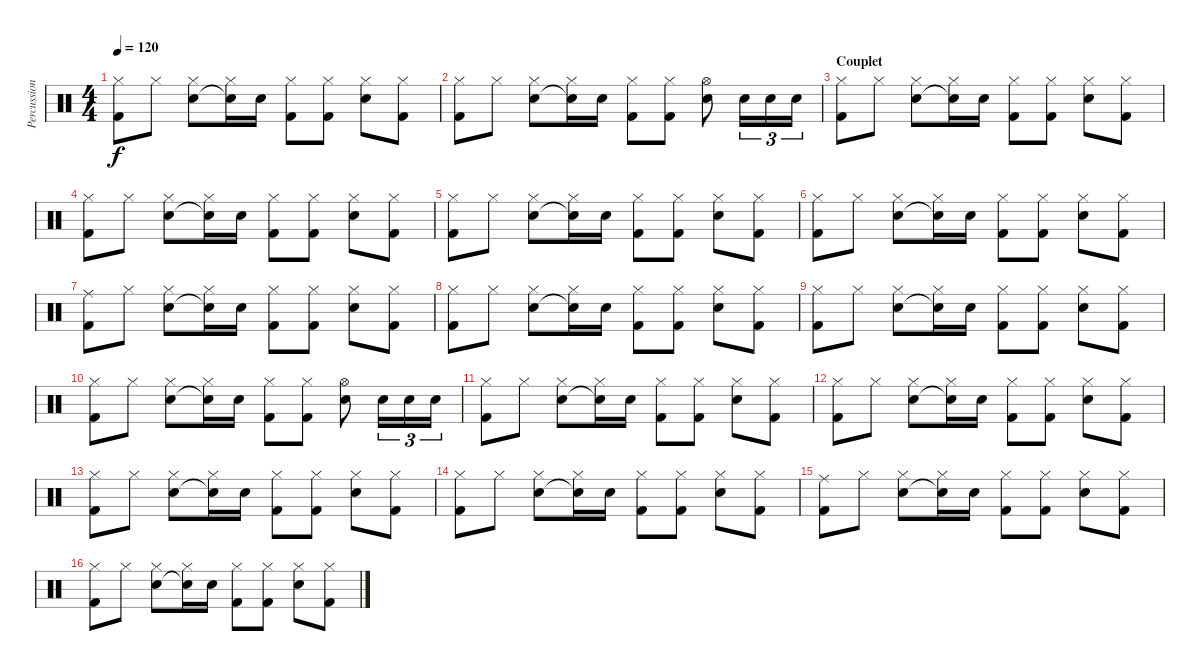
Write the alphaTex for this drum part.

\track ("Percussions" "Percussion") {instrument percussion}
\staff {score}
\articulation defaults
\ts (4 4)
\tempo 120
\clef neutral
\ks c
("Hi-Hat (closed)" "Kick (hit) 2").8{dy f} "Hi-Hat (closed)".8 ("Hi-Hat (closed)" "Snare (hit) 2").8 ("Hi-Hat (closed)" "Snare (hit)"{t}).16 "Snare (hit) 2".16 ("Hi-Hat (closed)" "Kick (hit) 2").8 ("Hi-Hat (closed)" "Kick (hit) 2").8 ("Hi-Hat (closed)" "Snare (hit) 2").8 ("Hi-Hat (closed)" "Kick (hit) 2").8 |
("Hi-Hat (closed)" "Kick (hit) 2").8 "Hi-Hat (closed)".8 ("Hi-Hat (closed)" "Snare (hit) 2").8 ("Hi-Hat (closed)" "Snare (hit)"{t}).16 "Snare (hit) 2".16 ("Hi-Hat (closed)" "Kick (hit) 2").8 ("Hi-Hat (closed)" "Kick (hit) 2").8 ("Hi-Hat (open)" "Snare (hit) 2").8 "Snare (hit) 2".16{tu (3 2)} "Snare (hit) 2".16{tu (3 2)} "Snare (hit) 2".16{tu (3 2)} |
\section ("" "Couplet")
("Hi-Hat (closed)" "Kick (hit) 2").8 "Hi-Hat (closed)".8 ("Hi-Hat (closed)" "Snare (hit) 2").8 ("Hi-Hat (closed)" "Snare (hit)"{t}).16 "Snare (hit) 2".16 ("Hi-Hat (closed)" "Kick (hit) 2").8 ("Hi-Hat (closed)" "Kick (hit) 2").8 ("Hi-Hat (closed)" "Snare (hit) 2").8 ("Hi-Hat (closed)" "Kick (hit) 2").8 |
("Hi-Hat (closed)" "Kick (hit) 2").8 "Hi-Hat (closed)".8 ("Hi-Hat (closed)" "Snare (hit) 2").8 ("Hi-Hat (closed)" "Snare (hit)"{t}).16 "Snare (hit) 2".16 ("Hi-Hat (closed)" "Kick (hit) 2").8 ("Hi-Hat (closed)" "Kick (hit) 2").8 ("Hi-Hat (closed)" "Snare (hit) 2").8 ("Hi-Hat (closed)" "Kick (hit) 2").8 |
("Hi-Hat (closed)" "Kick (hit) 2").8 "Hi-Hat (closed)".8 ("Hi-Hat (closed)" "Snare (hit) 2").8 ("Hi-Hat (closed)" "Snare (hit)"{t}).16 "Snare (hit) 2".16 ("Hi-Hat (closed)" "Kick (hit) 2").8 ("Hi-Hat (closed)" "Kick (hit) 2").8 ("Hi-Hat (closed)" "Snare (hit) 2").8 ("Hi-Hat (closed)" "Kick (hit) 2").8 |
("Hi-Hat (closed)" "Kick (hit) 2").8 "Hi-Hat (closed)".8 ("Hi-Hat (closed)" "Snare (hit) 2").8 ("Hi-Hat (closed)" "Snare (hit)"{t}).16 "Snare (hit) 2".16 ("Hi-Hat (closed)" "Kick (hit) 2").8 ("Hi-Hat (closed)" "Kick (hit) 2").8 ("Hi-Hat (closed)" "Snare (hit) 2").8 ("Hi-Hat (closed)" "Kick (hit) 2").8 |
("Ride (middle)" "Kick (hit) 2").8 "Hi-Hat (closed)".8 ("Hi-Hat (closed)" "Snare (hit) 2").8 ("Hi-Hat (closed)" "Snare (hit)"{t}).16 "Snare (hit) 2".16 ("Hi-Hat (closed)" "Kick (hit) 2").8 ("Hi-Hat (closed)" "Kick (hit) 2").8 ("Hi-Hat (closed)" "Snare (hit) 2").8 ("Hi-Hat (closed)" "Kick (hit) 2").8 |
("Hi-Hat (closed)" "Kick (hit) 2").8 "Hi-Hat (closed)".8 ("Hi-Hat (closed)" "Snare (hit) 2").8 ("Hi-Hat (closed)" "Snare (hit)"{t}).16 "Snare (hit) 2".16 ("Hi-Hat (closed)" "Kick (hit) 2").8 ("Hi-Hat (closed)" "Kick (hit) 2").8 ("Hi-Hat (closed)" "Snare (hit) 2").8 ("Hi-Hat (closed)" "Kick (hit) 2").8 |
("Hi-Hat (closed)" "Kick (hit) 2").8 "Hi-Hat (closed)".8 ("Hi-Hat (closed)" "Snare (hit) 2").8 ("Hi-Hat (closed)" "Snare (hit)"{t}).16 "Snare (hit) 2".16 ("Hi-Hat (closed)" "Kick (hit) 2").8 ("Hi-Hat (closed)" "Kick (hit) 2").8 ("Hi-Hat (closed)" "Snare (hit) 2").8 ("Hi-Hat (closed)" "Kick (hit) 2").8 |
("Hi-Hat (closed)" "Kick (hit) 2").8 "Hi-Hat (closed)".8 ("Hi-Hat (closed)" "Snare (hit) 2").8 ("Hi-Hat (closed)" "Snare (hit)"{t}).16 "Snare (hit) 2".16 ("Hi-Hat (closed)" "Kick (hit) 2").8 ("Hi-Hat (closed)" "Kick (hit) 2").8 ("Hi-Hat (open)" "Snare (hit) 2").8 "Snare (hit) 2".16{tu (3 2)} "Snare (hit) 2".16{tu (3 2)} "Snare (hit) 2".16{tu (3 2)} |
("Hi-Hat (closed)" "Kick (hit) 2").8 "Hi-Hat (closed)".8 ("Hi-Hat (closed)" "Snare (hit) 2").8 ("Hi-Hat (closed)" "Snare (hit)"{t}).16 "Snare (hit) 2".16 ("Hi-Hat (closed)" "Kick (hit) 2").8 ("Hi-Hat (closed)" "Kick (hit) 2").8 ("Hi-Hat (closed)" "Snare (hit) 2").8 ("Hi-Hat (closed)" "Kick (hit) 2").8 |
("Hi-Hat (closed)" "Kick (hit) 2").8 "Hi-Hat (closed)".8 ("Hi-Hat (closed)" "Snare (hit) 2").8 ("Hi-Hat (closed)" "Snare (hit)"{t}).16 "Snare (hit) 2".16 ("Hi-Hat (closed)" "Kick (hit) 2").8 ("Hi-Hat (closed)" "Kick (hit) 2").8 ("Hi-Hat (closed)" "Snare (hit) 2").8 ("Hi-Hat (closed)" "Kick (hit) 2").8 |
("Hi-Hat (closed)" "Kick (hit) 2").8 "Hi-Hat (closed)".8 ("Hi-Hat (closed)" "Snare (hit) 2").8 ("Hi-Hat (closed)" "Snare (hit)"{t}).16 "Snare (hit) 2".16 ("Hi-Hat (closed)" "Kick (hit) 2").8 ("Hi-Hat (closed)" "Kick (hit) 2").8 ("Hi-Hat (closed)" "Snare (hit) 2").8 ("Hi-Hat (closed)" "Kick (hit) 2").8 |
("Hi-Hat (closed)" "Kick (hit) 2").8 "Hi-Hat (closed)".8 ("Hi-Hat (closed)" "Snare (hit) 2").8 ("Hi-Hat (closed)" "Snare (hit)"{t}).16 "Snare (hit) 2".16 ("Hi-Hat (closed)" "Kick (hit) 2").8 ("Hi-Hat (closed)" "Kick (hit) 2").8 ("Hi-Hat (closed)" "Snare (hit) 2").8 ("Hi-Hat (closed)" "Kick (hit) 2").8 |
("Ride (middle)" "Kick (hit) 2").8 "Hi-Hat (closed)".8 ("Hi-Hat (closed)" "Snare (hit) 2").8 ("Hi-Hat (closed)" "Snare (hit)"{t}).16 "Snare (hit) 2".16 ("Hi-Hat (closed)" "Kick (hit) 2").8 ("Hi-Hat (closed)" "Kick (hit) 2").8 ("Hi-Hat (closed)" "Snare (hit) 2").8 ("Hi-Hat (closed)" "Kick (hit) 2").8 |
("Hi-Hat (closed)" "Kick (hit) 2").8 "Hi-Hat (closed)".8 ("Hi-Hat (closed)" "Snare (hit) 2").8 ("Hi-Hat (closed)" "Snare (hit)"{t}).16 "Snare (hit) 2".16 ("Hi-Hat (closed)" "Kick (hit) 2").8 ("Hi-Hat (closed)" "Kick (hit) 2").8 ("Hi-Hat (closed)" "Snare (hit) 2").8 ("Hi-Hat (closed)" "Kick (hit) 2").8
